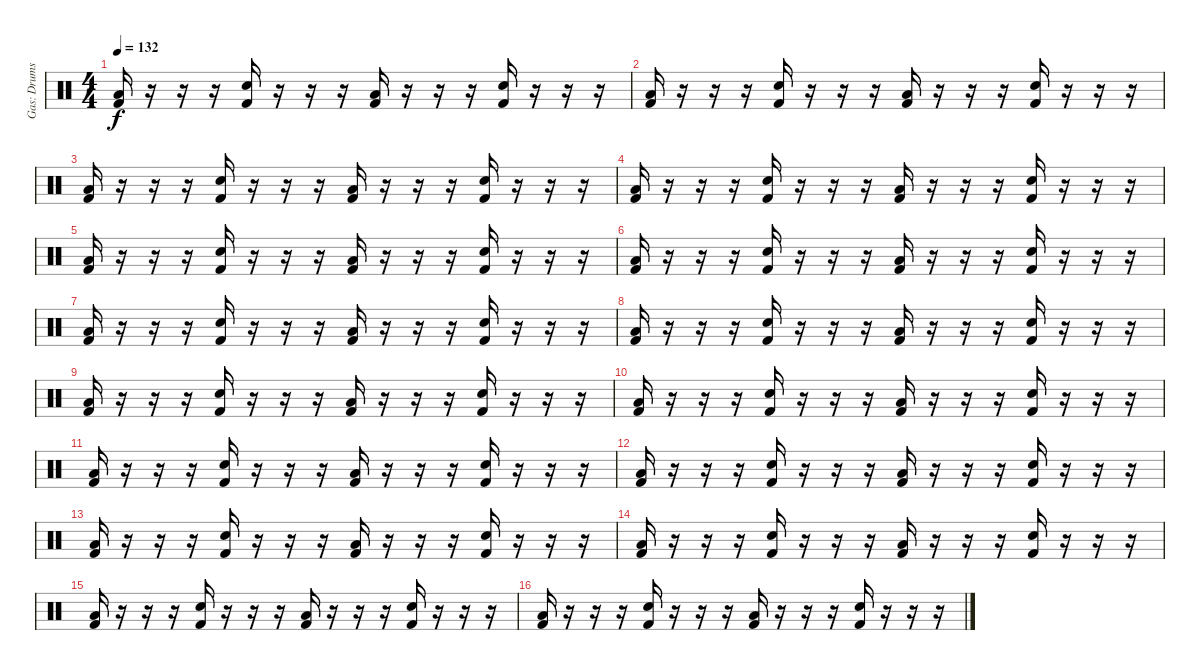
\track ("Gas: Drums" "Gas: Drums") {instrument percussion}
\staff {score}
\articulation defaults
\ts (4 4)
\tempo 132
\clef neutral
\ks c
("Low Tom (hit)" "Kick (hit) 2").16{dy f} r.16 r.16 r.16 ("Electric Snare (hit)" "Kick (hit) 2").16 r.16 r.16 r.16 ("Low Tom (hit)" "Kick (hit) 2").16 r.16 r.16 r.16 ("Electric Snare (hit)" "Kick (hit) 2").16 r.16 r.16 r.16 |
("Low Tom (hit)" "Kick (hit) 2").16 r.16 r.16 r.16 ("Electric Snare (hit)" "Kick (hit) 2").16 r.16 r.16 r.16 ("Low Tom (hit)" "Kick (hit) 2").16 r.16 r.16 r.16 ("Electric Snare (hit)" "Kick (hit) 2").16 r.16 r.16 r.16 |
("Low Tom (hit)" "Kick (hit) 2").16 r.16 r.16 r.16 ("Electric Snare (hit)" "Kick (hit) 2").16 r.16 r.16 r.16 ("Low Tom (hit)" "Kick (hit) 2").16 r.16 r.16 r.16 ("Electric Snare (hit)" "Kick (hit) 2").16 r.16 r.16 r.16 |
("Low Tom (hit)" "Kick (hit) 2").16 r.16 r.16 r.16 ("Electric Snare (hit)" "Kick (hit) 2").16 r.16 r.16 r.16 ("Low Tom (hit)" "Kick (hit) 2").16 r.16 r.16 r.16 ("Electric Snare (hit)" "Kick (hit) 2").16 r.16 r.16 r.16 |
("Low Tom (hit)" "Kick (hit) 2").16 r.16 r.16 r.16 ("Electric Snare (hit)" "Kick (hit) 2").16 r.16 r.16 r.16 ("Low Tom (hit)" "Kick (hit) 2").16 r.16 r.16 r.16 ("Electric Snare (hit)" "Kick (hit) 2").16 r.16 r.16 r.16 |
("Low Tom (hit)" "Kick (hit) 2").16 r.16 r.16 r.16 ("Electric Snare (hit)" "Kick (hit) 2").16 r.16 r.16 r.16 ("Low Tom (hit)" "Kick (hit) 2").16 r.16 r.16 r.16 ("Electric Snare (hit)" "Kick (hit) 2").16 r.16 r.16 r.16 |
("Low Tom (hit)" "Kick (hit) 2").16 r.16 r.16 r.16 ("Electric Snare (hit)" "Kick (hit) 2").16 r.16 r.16 r.16 ("Low Tom (hit)" "Kick (hit) 2").16 r.16 r.16 r.16 ("Electric Snare (hit)" "Kick (hit) 2").16 r.16 r.16 r.16 |
("Low Tom (hit)" "Kick (hit) 2").16 r.16 r.16 r.16 ("Electric Snare (hit)" "Kick (hit) 2").16 r.16 r.16 r.16 ("Low Tom (hit)" "Kick (hit) 2").16 r.16 r.16 r.16 ("Electric Snare (hit)" "Kick (hit) 2").16 r.16 r.16 r.16 |
("Low Tom (hit)" "Kick (hit) 2").16 r.16 r.16 r.16 ("Electric Snare (hit)" "Kick (hit) 2").16 r.16 r.16 r.16 ("Low Tom (hit)" "Kick (hit) 2").16 r.16 r.16 r.16 ("Electric Snare (hit)" "Kick (hit) 2").16 r.16 r.16 r.16 |
("Low Tom (hit)" "Kick (hit) 2").16 r.16 r.16 r.16 ("Electric Snare (hit)" "Kick (hit) 2").16 r.16 r.16 r.16 ("Low Tom (hit)" "Kick (hit) 2").16 r.16 r.16 r.16 ("Electric Snare (hit)" "Kick (hit) 2").16 r.16 r.16 r.16 |
("Low Tom (hit)" "Kick (hit) 2").16 r.16 r.16 r.16 ("Electric Snare (hit)" "Kick (hit) 2").16 r.16 r.16 r.16 ("Low Tom (hit)" "Kick (hit) 2").16 r.16 r.16 r.16 ("Electric Snare (hit)" "Kick (hit) 2").16 r.16 r.16 r.16 |
("Low Tom (hit)" "Kick (hit) 2").16 r.16 r.16 r.16 ("Electric Snare (hit)" "Kick (hit) 2").16 r.16 r.16 r.16 ("Low Tom (hit)" "Kick (hit) 2").16 r.16 r.16 r.16 ("Electric Snare (hit)" "Kick (hit) 2").16 r.16 r.16 r.16 |
("Low Tom (hit)" "Kick (hit) 2").16 r.16 r.16 r.16 ("Electric Snare (hit)" "Kick (hit) 2").16 r.16 r.16 r.16 ("Low Tom (hit)" "Kick (hit) 2").16 r.16 r.16 r.16 ("Electric Snare (hit)" "Kick (hit) 2").16 r.16 r.16 r.16 |
("Low Tom (hit)" "Kick (hit) 2").16 r.16 r.16 r.16 ("Electric Snare (hit)" "Kick (hit) 2").16 r.16 r.16 r.16 ("Low Tom (hit)" "Kick (hit) 2").16 r.16 r.16 r.16 ("Electric Snare (hit)" "Kick (hit) 2").16 r.16 r.16 r.16 |
("Low Tom (hit)" "Kick (hit) 2").16 r.16 r.16 r.16 ("Electric Snare (hit)" "Kick (hit) 2").16 r.16 r.16 r.16 ("Low Tom (hit)" "Kick (hit) 2").16 r.16 r.16 r.16 ("Electric Snare (hit)" "Kick (hit) 2").16 r.16 r.16 r.16 |
("Low Tom (hit)" "Kick (hit) 2").16 r.16 r.16 r.16 ("Electric Snare (hit)" "Kick (hit) 2").16 r.16 r.16 r.16 ("Low Tom (hit)" "Kick (hit) 2").16 r.16 r.16 r.16 ("Electric Snare (hit)" "Kick (hit) 2").16 r.16 r.16 r.16
